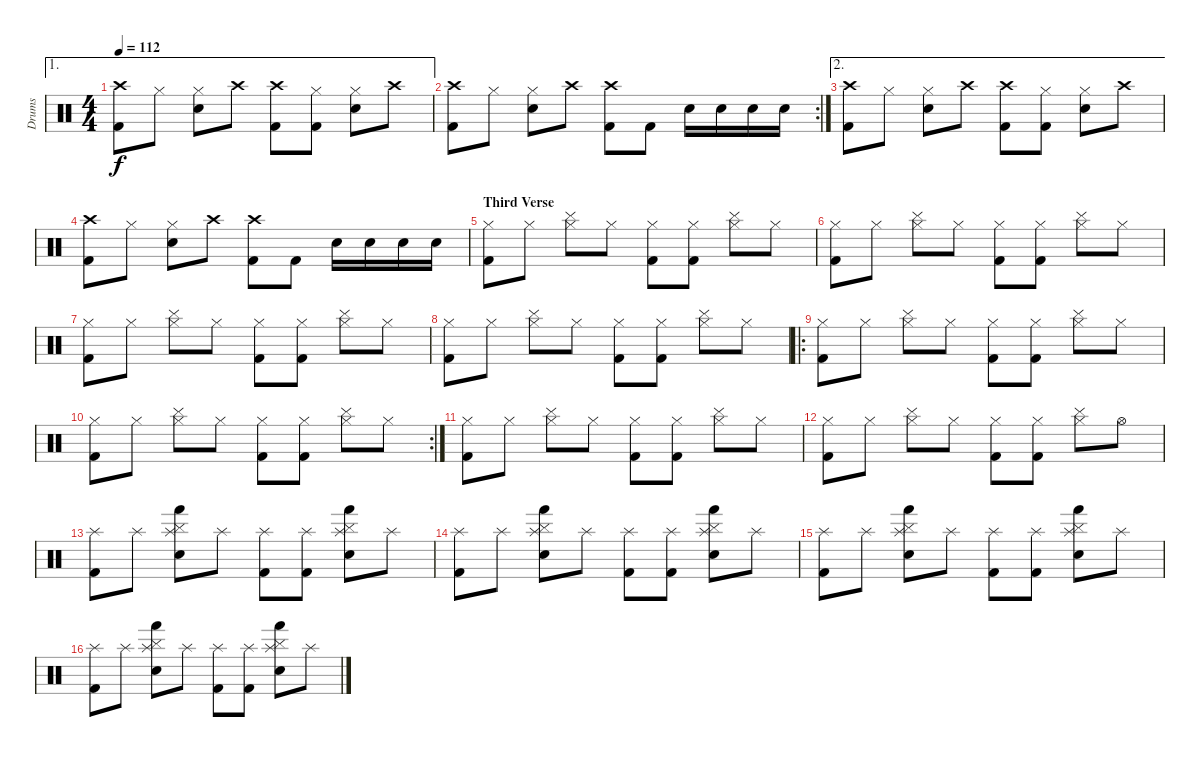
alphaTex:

\track ("Drums" "Drums") {instrument percussion}
\staff {score}
\articulation defaults
\ae 1
\ts (4 4)
\tempo 112
\clef neutral
\ks c
("Crash high (hit)" "Kick (hit) 2").8{dy f} "Hi-Hat (closed)".8 ("Hi-Hat (closed)" "Electric Snare (hit)").8 "Crash high (hit)".8 ("Crash high (hit)" "Kick (hit) 2").8 ("Hi-Hat (closed)" "Kick (hit) 2").8 ("Hi-Hat (closed)" "Electric Snare (hit)").8 "Crash high (hit)".8 |
\rc 2
("Crash high (hit)" "Kick (hit) 2").8 "Hi-Hat (closed)".8 ("Hi-Hat (closed)" "Electric Snare (hit)").8 "Crash high (hit)".8 ("Crash high (hit)" "Kick (hit) 2").8 "Kick (hit) 2".8 "Electric Snare (hit)".16 "Electric Snare (hit)".16 "Electric Snare (hit)".16 "Electric Snare (hit)".16 |
\ae 2
("Crash high (hit)" "Kick (hit) 2").8 "Hi-Hat (closed)".8 ("Hi-Hat (closed)" "Electric Snare (hit)").8 "Crash high (hit)".8 ("Crash high (hit)" "Kick (hit) 2").8 ("Hi-Hat (closed)" "Kick (hit) 2").8 ("Hi-Hat (closed)" "Electric Snare (hit)").8 "Crash high (hit)".8 |
("Crash high (hit)" "Kick (hit) 2").8 "Hi-Hat (closed)".8 ("Hi-Hat (closed)" "Electric Snare (hit)").8 "Crash high (hit)".8 ("Crash high (hit)" "Kick (hit) 2").8 "Kick (hit) 2".8 "Electric Snare (hit)".16 "Electric Snare (hit)".16 "Electric Snare (hit)".16 "Electric Snare (hit)".16 |
\section ("" "Third Verse")
("Hi-Hat (closed)" "Kick (hit) 2").8 "Hi-Hat (closed)".8 ("Hi-Hat (closed)" "Cymbal (hit)").8 "Hi-Hat (closed)".8 ("Hi-Hat (closed)" "Kick (hit) 2").8 ("Hi-Hat (closed)" "Kick (hit) 2").8 ("Hi-Hat (closed)" "Cymbal (hit)").8 "Hi-Hat (closed)".8 |
("Hi-Hat (closed)" "Kick (hit) 2").8 "Hi-Hat (closed)".8 ("Hi-Hat (closed)" "Cymbal (hit)").8 "Hi-Hat (closed)".8 ("Hi-Hat (closed)" "Kick (hit) 2").8 ("Hi-Hat (closed)" "Kick (hit) 2").8 ("Hi-Hat (closed)" "Cymbal (hit)").8 "Hi-Hat (closed)".8 |
("Hi-Hat (closed)" "Kick (hit) 2").8 "Hi-Hat (closed)".8 ("Hi-Hat (closed)" "Cymbal (hit)").8 "Hi-Hat (closed)".8 ("Hi-Hat (closed)" "Kick (hit) 2").8 ("Hi-Hat (closed)" "Kick (hit) 2").8 ("Hi-Hat (closed)" "Cymbal (hit)").8 "Hi-Hat (closed)".8 |
("Hi-Hat (closed)" "Kick (hit) 2").8 "Hi-Hat (closed)".8 ("Hi-Hat (closed)" "Cymbal (hit)").8 "Hi-Hat (closed)".8 ("Hi-Hat (closed)" "Kick (hit) 2").8 ("Hi-Hat (closed)" "Kick (hit) 2").8 ("Hi-Hat (closed)" "Cymbal (hit)").8 "Hi-Hat (closed)".8 |
\ro
("Hi-Hat (closed)" "Kick (hit) 2").8 "Hi-Hat (closed)".8 ("Hi-Hat (closed)" "Cymbal (hit)").8 "Hi-Hat (closed)".8 ("Hi-Hat (closed)" "Kick (hit) 2").8 ("Hi-Hat (closed)" "Kick (hit) 2").8 ("Hi-Hat (closed)" "Cymbal (hit)").8 "Hi-Hat (closed)".8 |
\rc 2
("Hi-Hat (closed)" "Kick (hit) 2").8 "Hi-Hat (closed)".8 ("Hi-Hat (closed)" "Cymbal (hit)").8 "Hi-Hat (closed)".8 ("Hi-Hat (closed)" "Kick (hit) 2").8 ("Hi-Hat (closed)" "Kick (hit) 2").8 ("Hi-Hat (closed)" "Cymbal (hit)").8 "Hi-Hat (closed)".8 |
("Hi-Hat (closed)" "Kick (hit) 2").8 "Hi-Hat (closed)".8 ("Hi-Hat (closed)" "Cymbal (hit)").8 "Hi-Hat (closed)".8 ("Hi-Hat (closed)" "Kick (hit) 2").8 ("Hi-Hat (closed)" "Kick (hit) 2").8 ("Hi-Hat (closed)" "Cymbal (hit)").8 "Hi-Hat (closed)".8 |
("Hi-Hat (closed)" "Kick (hit) 2").8 "Hi-Hat (closed)".8 ("Hi-Hat (closed)" "Cymbal (hit)").8 "Hi-Hat (closed)".8 ("Hi-Hat (closed)" "Kick (hit) 2").8 ("Hi-Hat (closed)" "Kick (hit) 2").8 ("Hi-Hat (closed)" "Cymbal (hit)").8 "Hi-Hat (open)".8 |
("Splash (hit)" "Kick (hit) 2").8 "Splash (hit)".8 ("Splash (hit)" "Hand (hit)" "Snare (hit) 2" "Cymbal (hit)").8 "Splash (hit)".8 ("Splash (hit)" "Kick (hit) 2").8 ("Splash (hit)" "Kick (hit) 2").8 ("Splash (hit)" "Cymbal (hit)" "Snare (hit) 2" "Hand (hit)").8 "Splash (hit)".8 |
("Splash (hit)" "Kick (hit) 2").8 "Splash (hit)".8 ("Splash (hit)" "Hand (hit)" "Snare (hit) 2" "Cymbal (hit)").8 "Splash (hit)".8 ("Splash (hit)" "Kick (hit) 2").8 ("Splash (hit)" "Kick (hit) 2").8 ("Splash (hit)" "Cymbal (hit)" "Snare (hit) 2" "Hand (hit)").8 "Splash (hit)".8 |
("Splash (hit)" "Kick (hit) 2").8 "Splash (hit)".8 ("Splash (hit)" "Hand (hit)" "Snare (hit) 2" "Cymbal (hit)").8 "Splash (hit)".8 ("Splash (hit)" "Kick (hit) 2").8 ("Splash (hit)" "Kick (hit) 2").8 ("Splash (hit)" "Cymbal (hit)" "Snare (hit) 2" "Hand (hit)").8 "Splash (hit)".8 |
("Splash (hit)" "Kick (hit) 2").8 "Splash (hit)".8 ("Splash (hit)" "Hand (hit)" "Snare (hit) 2" "Cymbal (hit)").8 "Splash (hit)".8 ("Splash (hit)" "Kick (hit) 2").8 ("Splash (hit)" "Kick (hit) 2").8 ("Splash (hit)" "Cymbal (hit)" "Snare (hit) 2" "Hand (hit)").8 "Splash (hit)".8
